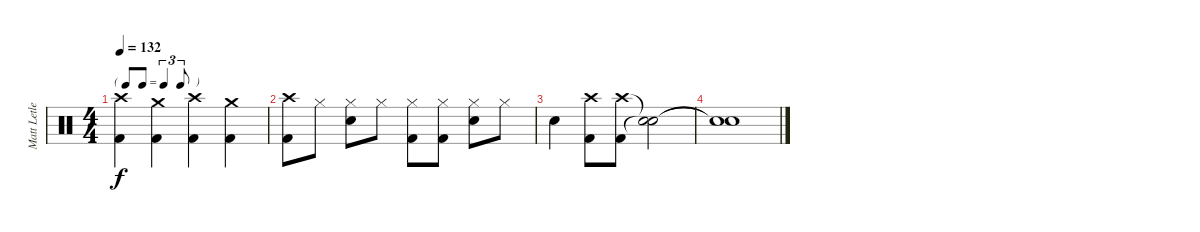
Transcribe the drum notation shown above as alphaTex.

\track ("Matt Letley" "Matt Letle") {instrument percussion}
\staff {score}
\articulation defaults
\ts (4 4)
\tf triplet8th
\tempo 132
\clef neutral
\ks c
("Crash high (hit)" "Kick (hit) 2").4{dy f} ("Crash medium (hit)" "Kick (hit) 2").4 ("Crash high (hit)" "Kick (hit) 2").4 ("Crash medium (hit)" "Kick (hit) 2").4 |
("Crash high (hit)" "Kick (hit) 2").8 "Hi-Hat (closed)".8 ("Hi-Hat (closed)" "Electric Snare (hit)").8 "Hi-Hat (closed)".8 ("Hi-Hat (closed)" "Kick (hit) 2").8 ("Hi-Hat (closed)" "Kick (hit) 2").8 ("Hi-Hat (closed)" "Electric Snare (hit)").8 "Hi-Hat (closed)".8 |
"Electric Snare (hit)".4 ("Crash high (hit)" "Kick (hit) 2").8 ("Crash high (hit)" "Kick (hit) 2").8 ("Snare (hit)"{t} "Snare (hit)"{t}).2 |
("Snare (hit)"{t} "Snare (hit)"{t}).1
